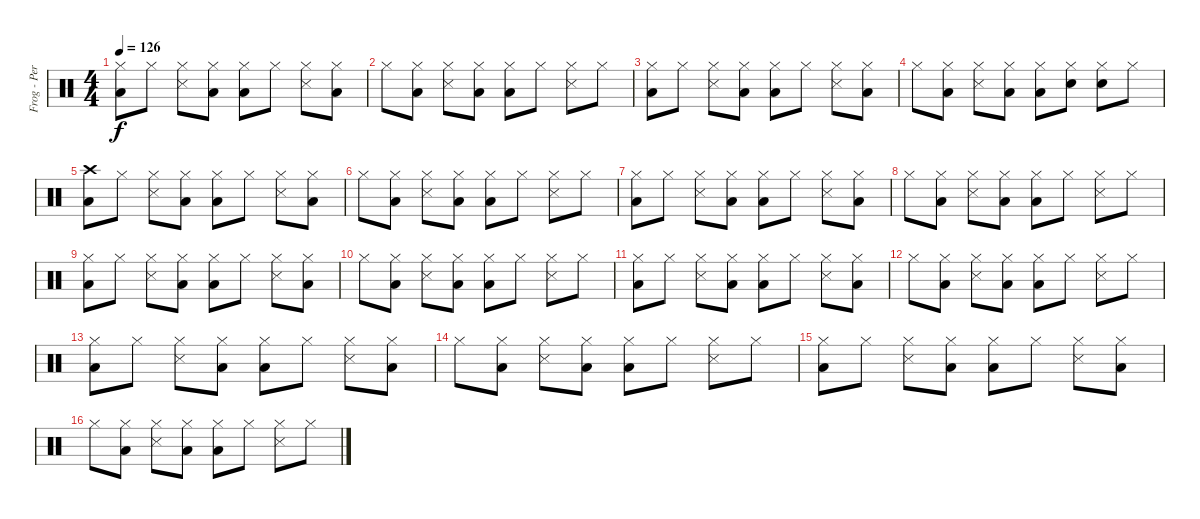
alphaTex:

\track ("Frog - Percussions" "Frog - Per") {instrument percussion}
\staff {score}
\articulation defaults
\ts (4 4)
\tempo 126
\clef neutral
\ks c
("Hi-Hat (closed)" "Low Floor Tom (hit)").8{dy f} "Hi-Hat (closed)".8 ("Hi-Hat (closed)" "Snare (side stick) 3").8 ("Hi-Hat (closed)" "Low Floor Tom (hit)").8 ("Hi-Hat (closed)" "Low Floor Tom (hit)").8 "Hi-Hat (closed)".8 ("Hi-Hat (closed)" "Snare (side stick) 3").8 ("Hi-Hat (closed)" "Low Floor Tom (hit)").8 |
"Hi-Hat (closed)".8 ("Hi-Hat (closed)" "Low Floor Tom (hit)").8 ("Hi-Hat (closed)" "Snare (side stick) 3").8 ("Hi-Hat (closed)" "Low Floor Tom (hit)").8 ("Hi-Hat (closed)" "Low Floor Tom (hit)").8 "Hi-Hat (closed)".8 ("Hi-Hat (closed)" "Snare (side stick) 3").8 "Hi-Hat (closed)".8 |
("Hi-Hat (closed)" "Low Floor Tom (hit)").8 "Hi-Hat (closed)".8 ("Hi-Hat (closed)" "Snare (side stick) 3").8 ("Hi-Hat (closed)" "Low Floor Tom (hit)").8 ("Hi-Hat (closed)" "Low Floor Tom (hit)").8 "Hi-Hat (closed)".8 ("Hi-Hat (closed)" "Snare (side stick) 3").8 ("Hi-Hat (closed)" "Low Floor Tom (hit)").8 |
"Hi-Hat (closed)".8 ("Hi-Hat (closed)" "Low Floor Tom (hit)").8 ("Hi-Hat (closed)" "Snare (side stick) 3").8 ("Hi-Hat (closed)" "Low Floor Tom (hit)").8 ("Hi-Hat (closed)" "Low Floor Tom (hit)").8 ("Hi-Hat (closed)" "Snare (hit) 2").8 ("Hi-Hat (closed)" "Snare (hit) 2").8 "Hi-Hat (closed)".8 |
("Crash high (hit)" "Low Floor Tom (hit)").8 "Hi-Hat (closed)".8 ("Hi-Hat (closed)" "Snare (side stick) 3").8 ("Hi-Hat (closed)" "Low Floor Tom (hit)").8 ("Hi-Hat (closed)" "Low Floor Tom (hit)").8 "Hi-Hat (closed)".8 ("Hi-Hat (closed)" "Snare (side stick) 3").8 ("Hi-Hat (closed)" "Low Floor Tom (hit)").8 |
"Hi-Hat (closed)".8 ("Hi-Hat (closed)" "Low Floor Tom (hit)").8 ("Hi-Hat (closed)" "Snare (side stick) 3").8 ("Hi-Hat (closed)" "Low Floor Tom (hit)").8 ("Hi-Hat (closed)" "Low Floor Tom (hit)").8 "Hi-Hat (closed)".8 ("Hi-Hat (closed)" "Snare (side stick) 3").8 "Hi-Hat (closed)".8 |
("Hi-Hat (closed)" "Low Floor Tom (hit)").8 "Hi-Hat (closed)".8 ("Hi-Hat (closed)" "Snare (side stick) 3").8 ("Hi-Hat (closed)" "Low Floor Tom (hit)").8 ("Hi-Hat (closed)" "Low Floor Tom (hit)").8 "Hi-Hat (closed)".8 ("Hi-Hat (closed)" "Snare (side stick) 3").8 ("Hi-Hat (closed)" "Low Floor Tom (hit)").8 |
"Hi-Hat (closed)".8 ("Hi-Hat (closed)" "Low Floor Tom (hit)").8 ("Hi-Hat (closed)" "Snare (side stick) 3").8 ("Hi-Hat (closed)" "Low Floor Tom (hit)").8 ("Hi-Hat (closed)" "Low Floor Tom (hit)").8 "Hi-Hat (closed)".8 ("Hi-Hat (closed)" "Snare (side stick) 3").8 "Hi-Hat (closed)".8 |
("Hi-Hat (closed)" "Low Floor Tom (hit)").8 "Hi-Hat (closed)".8 ("Hi-Hat (closed)" "Snare (side stick) 3").8 ("Hi-Hat (closed)" "Low Floor Tom (hit)").8 ("Hi-Hat (closed)" "Low Floor Tom (hit)").8 "Hi-Hat (closed)".8 ("Hi-Hat (closed)" "Snare (side stick) 3").8 ("Hi-Hat (closed)" "Low Floor Tom (hit)").8 |
"Hi-Hat (closed)".8 ("Hi-Hat (closed)" "Low Floor Tom (hit)").8 ("Hi-Hat (closed)" "Snare (side stick) 3").8 ("Hi-Hat (closed)" "Low Floor Tom (hit)").8 ("Hi-Hat (closed)" "Low Floor Tom (hit)").8 "Hi-Hat (closed)".8 ("Hi-Hat (closed)" "Snare (side stick) 3").8 "Hi-Hat (closed)".8 |
("Hi-Hat (closed)" "Low Floor Tom (hit)").8 "Hi-Hat (closed)".8 ("Hi-Hat (closed)" "Snare (side stick) 3").8 ("Hi-Hat (closed)" "Low Floor Tom (hit)").8 ("Hi-Hat (closed)" "Low Floor Tom (hit)").8 "Hi-Hat (closed)".8 ("Hi-Hat (closed)" "Snare (side stick) 3").8 ("Hi-Hat (closed)" "Low Floor Tom (hit)").8 |
"Hi-Hat (closed)".8 ("Hi-Hat (closed)" "Low Floor Tom (hit)").8 ("Hi-Hat (closed)" "Snare (side stick) 3").8 ("Hi-Hat (closed)" "Low Floor Tom (hit)").8 ("Hi-Hat (closed)" "Low Floor Tom (hit)").8 "Hi-Hat (closed)".8 ("Hi-Hat (closed)" "Snare (side stick) 3").8 "Hi-Hat (closed)".8 |
("Hi-Hat (closed)" "Low Floor Tom (hit)").8 "Hi-Hat (closed)".8 ("Hi-Hat (closed)" "Snare (side stick) 3").8 ("Hi-Hat (closed)" "Low Floor Tom (hit)").8 ("Hi-Hat (closed)" "Low Floor Tom (hit)").8 "Hi-Hat (closed)".8 ("Hi-Hat (closed)" "Snare (side stick) 3").8 ("Hi-Hat (closed)" "Low Floor Tom (hit)").8 |
"Hi-Hat (closed)".8 ("Hi-Hat (closed)" "Low Floor Tom (hit)").8 ("Hi-Hat (closed)" "Snare (side stick) 3").8 ("Hi-Hat (closed)" "Low Floor Tom (hit)").8 ("Hi-Hat (closed)" "Low Floor Tom (hit)").8 "Hi-Hat (closed)".8 ("Hi-Hat (closed)" "Snare (side stick) 3").8 "Hi-Hat (closed)".8 |
("Hi-Hat (closed)" "Low Floor Tom (hit)").8 "Hi-Hat (closed)".8 ("Hi-Hat (closed)" "Snare (side stick) 3").8 ("Hi-Hat (closed)" "Low Floor Tom (hit)").8 ("Hi-Hat (closed)" "Low Floor Tom (hit)").8 "Hi-Hat (closed)".8 ("Hi-Hat (closed)" "Snare (side stick) 3").8 ("Hi-Hat (closed)" "Low Floor Tom (hit)").8 |
"Hi-Hat (closed)".8 ("Hi-Hat (closed)" "Low Floor Tom (hit)").8 ("Hi-Hat (closed)" "Snare (side stick) 3").8 ("Hi-Hat (closed)" "Low Floor Tom (hit)").8 ("Hi-Hat (closed)" "Low Floor Tom (hit)").8 "Hi-Hat (closed)".8 ("Hi-Hat (closed)" "Snare (side stick) 3").8 "Hi-Hat (closed)".8
